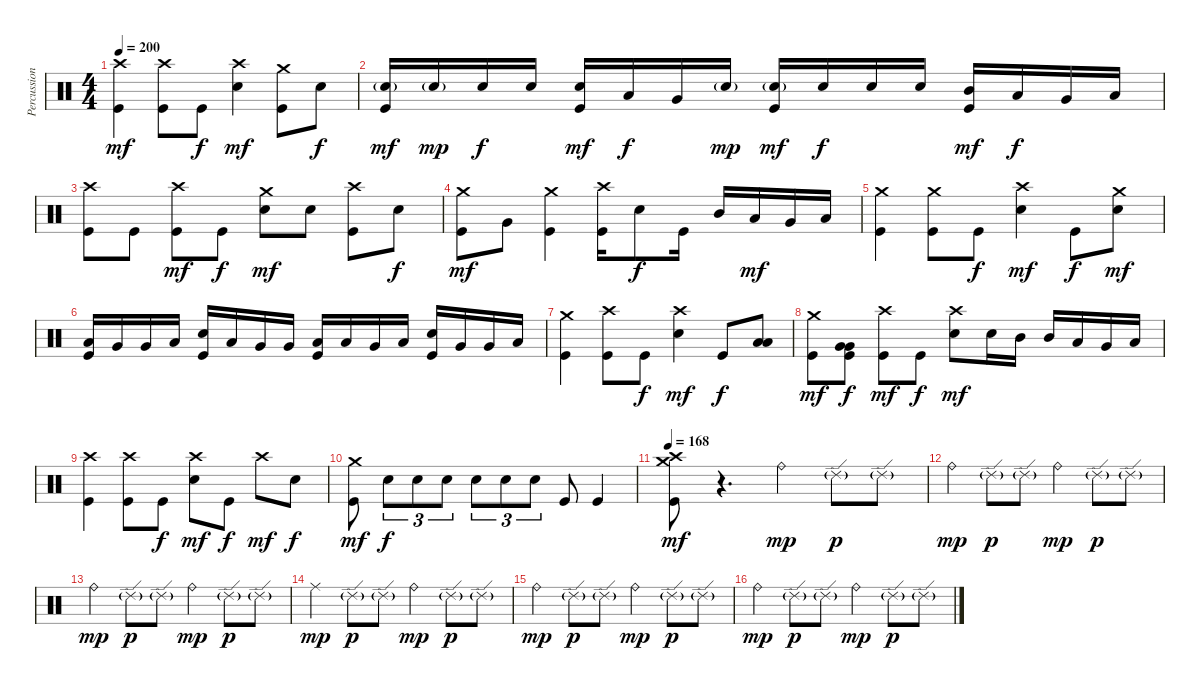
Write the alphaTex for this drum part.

\track ("Percussion" "Percussion") {instrument percussion}
\staff {score}
\articulation defaults
\ts (4 4)
\tempo 200
\clef neutral
\ks c
("Crash high (hit)" "Kick (hit)").4{dy mf} ("Crash high (hit)" "Kick (hit)").8 "Kick (hit)".8{dy f} ("Crash high (hit)" "Electric Snare (hit)").4{dy mf} ("Crash medium (hit)" "Kick (hit)").8 "Electric Snare (hit)".8{dy f} |
("Electric Snare (hit)"{g} "Kick (hit)").16{dy mf} "Electric Snare (hit)"{g}.16{dy mp} "Electric Snare (hit)".16{dy f} "Electric Snare (hit)".16 ("Electric Snare (hit)" "Kick (hit)").16{dy mf} "Low Tom (hit)".16{dy f} "Very Low Tom (hit)".16 "Electric Snare (hit)"{g}.16{dy mp} ("Electric Snare (hit)"{g} "Kick (hit)").16{dy mf} "Electric Snare (hit)".16{dy f} "Electric Snare (hit)".16 "Electric Snare (hit)".16 ("Mid Tom (hit)" "Kick (hit)").16{dy mf} "Low Tom (hit)".16{dy f} "Very Low Tom (hit)".16 "Low Floor Tom (hit)".16 |
("Crash high (hit)" "Kick (hit)").8 "Kick (hit)".8 ("Crash high (hit)" "Kick (hit)").8{dy mf} "Kick (hit)".8{dy f} ("Crash medium (hit)" "Electric Snare (hit)").8{dy mf} "Electric Snare (hit)".8 ("Crash high (hit)" "Kick (hit)").8 "Electric Snare (hit)".8{dy f} |
("Crash medium (hit)" "Kick (hit)").8{dy mf} "Very Low Tom (hit)".8 ("Crash medium (hit)" "Kick (hit)").4 ("Crash high (hit)" "Kick (hit)").16 "Electric Snare (hit)".8{dy f} "Kick (hit)".16 "Mid Tom (hit)".16 "Low Tom (hit)".16{dy mf} "Very Low Tom (hit)".16 "Low Floor Tom (hit)".16 |
("Crash medium (hit)" "Kick (hit)").4 ("Crash medium (hit)" "Kick (hit)").8 "Kick (hit)".8{dy f} ("Crash high (hit)" "Electric Snare (hit)").4{dy mf} "Kick (hit)".8{dy f} ("Crash medium (hit)" "Electric Snare (hit)").8{dy mf} |
("Low Tom (hit)" "Kick (hit)").16 "Very Low Tom (hit)".16 "Very Low Tom (hit)".16 "Low Floor Tom (hit)".16 ("Electric Snare (hit)" "Kick (hit)").16 "Low Tom (hit)".16 "Very Low Tom (hit)".16 "Very Low Tom (hit)".16 ("Low Floor Tom (hit)" "Kick (hit)").16 "Low Tom (hit)".16 "Very Low Tom (hit)".16 "Low Floor Tom (hit)".16 ("Electric Snare (hit)" "Kick (hit)").16 "Very Low Tom (hit)".16 "Very Low Tom (hit)".16 "Low Floor Tom (hit)".16 |
("Crash medium (hit)" "Kick (hit)").4 ("Crash high (hit)" "Kick (hit)").8 "Kick (hit)".8{dy f} ("Crash high (hit)" "Electric Snare (hit)").4{dy mf} "Kick (hit)".8{dy f} ("Low Tom (hit)" "Low Tom (hit)").8 |
("Crash medium (hit)" "Kick (hit)").8{dy mf} ("Very Low Tom (hit)" "Very Low Tom (hit)" "Kick (hit)").8{dy f} ("Crash high (hit)" "Kick (hit)").8{dy mf} "Kick (hit)".8{dy f} ("Crash high (hit)" "Electric Snare (hit)").8{dy mf} "Electric Snare (hit)".16 "Mid Tom (hit)".16 "Mid Tom (hit)".16 "Low Tom (hit)".16 "Very Low Tom (hit)".16 "Low Floor Tom (hit)".16 |
("Crash high (hit)" "Kick (hit)").4 ("Crash high (hit)" "Kick (hit)").8 "Kick (hit)".8{dy f} ("Crash high (hit)" "Electric Snare (hit)").8{dy mf} "Kick (hit)".8{dy f} "Crash high (hit)".8{dy mf} "Electric Snare (hit)".8{dy f} |
("Crash medium (hit)" "Kick (hit)").8{dy mf} "Electric Snare (hit)".8{tu (3 2) dy f} "Electric Snare (hit)".8{tu (3 2)} "Electric Snare (hit)".8{tu (3 2)} "Electric Snare (hit)".8{tu (3 2)} "Electric Snare (hit)".8{tu (3 2)} "Electric Snare (hit)".8{tu (3 2)} "Kick (hit)".8 "Kick (hit)".4 |
\tempo 168
("Crash high (hit)" "Crash medium (hit)" "Kick (hit)").8{dy mf} r.4{d} "Ride (bell)".4{dy mp} "Ride (edge) 2"{g}.8{dy p} "Ride (edge) 2"{g}.8 |
"Ride (bell)".4{dy mp} "Ride (edge) 2"{g}.8{dy p} "Ride (edge) 2"{g}.8 "Ride (bell)".4{dy mp} "Ride (edge) 2"{g}.8{dy p} "Ride (edge) 2"{g}.8 |
"Ride (bell)".4{dy mp} "Ride (edge) 2"{g}.8{dy p} "Ride (edge) 2"{g}.8 "Ride (bell)".4{dy mp} "Ride (edge) 2"{g}.8{dy p} "Ride (edge) 2"{g}.8 |
"Ride (middle)".4{dy mp} "Ride (edge) 2"{g}.8{dy p} "Ride (edge) 2"{g}.8 "Ride (bell)".4{dy mp} "Ride (edge) 2"{g}.8{dy p} "Ride (edge) 2"{g}.8 |
"Ride (bell)".4{dy mp} "Ride (edge) 2"{g}.8{dy p} "Ride (edge) 2"{g}.8 "Ride (bell)".4{dy mp} "Ride (edge) 2"{g}.8{dy p} "Ride (edge) 2"{g}.8 |
"Ride (bell)".4{dy mp} "Ride (edge) 2"{g}.8{dy p} "Ride (edge) 2"{g}.8 "Ride (bell)".4{dy mp} "Ride (edge) 2"{g}.8{dy p} "Ride (edge) 2"{g}.8
